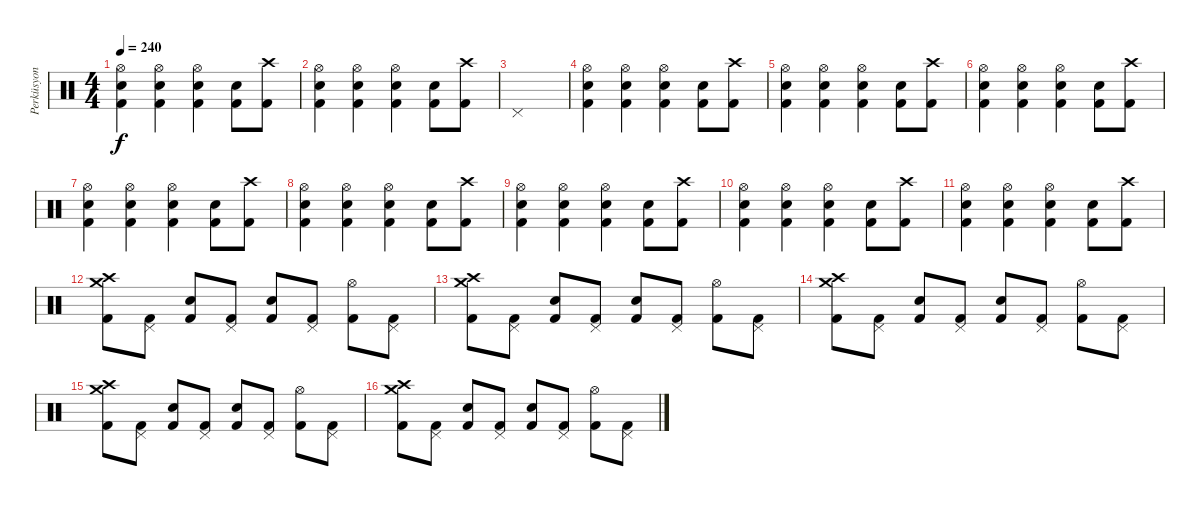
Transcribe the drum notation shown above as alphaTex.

\track ("Perküsyon" "Perküsyon") {instrument percussion}
\staff {score}
\articulation defaults
\ts (4 4)
\tempo 240
\clef neutral
\ks c
("Hi-Hat (open)" "Kick (hit) 2" "Electric Snare (hit)").4{dy f} ("Hi-Hat (open)" "Kick (hit) 2" "Electric Snare (hit)").4 ("Hi-Hat (open)" "Kick (hit) 2" "Electric Snare (hit)").4 ("Electric Snare (hit)" "Kick (hit) 2").8 ("Crash high (hit)" "Kick (hit) 2").8 |
("Hi-Hat (open)" "Kick (hit) 2" "Electric Snare (hit)").4 ("Hi-Hat (open)" "Kick (hit) 2" "Electric Snare (hit)").4 ("Hi-Hat (open)" "Kick (hit) 2" "Electric Snare (hit)").4 ("Electric Snare (hit)" "Kick (hit) 2").8 ("Crash high (hit)" "Kick (hit) 2").8 |
"Pedal Hi-Hat (hit)".1{volume 11} |
("Hi-Hat (open)" "Kick (hit) 2" "Electric Snare (hit)").4 ("Hi-Hat (open)" "Kick (hit) 2" "Electric Snare (hit)").4 ("Hi-Hat (open)" "Kick (hit) 2" "Electric Snare (hit)").4 ("Electric Snare (hit)" "Kick (hit) 2").8 ("Crash high (hit)" "Kick (hit) 2").8 |
("Hi-Hat (open)" "Kick (hit) 2" "Electric Snare (hit)").4 ("Hi-Hat (open)" "Kick (hit) 2" "Electric Snare (hit)").4 ("Hi-Hat (open)" "Kick (hit) 2" "Electric Snare (hit)").4 ("Electric Snare (hit)" "Kick (hit) 2").8 ("Crash high (hit)" "Kick (hit) 2").8 |
("Hi-Hat (open)" "Kick (hit) 2" "Electric Snare (hit)").4 ("Hi-Hat (open)" "Kick (hit) 2" "Electric Snare (hit)").4 ("Hi-Hat (open)" "Kick (hit) 2" "Electric Snare (hit)").4 ("Electric Snare (hit)" "Kick (hit) 2").8 ("Crash high (hit)" "Kick (hit) 2").8 |
("Hi-Hat (open)" "Kick (hit) 2" "Electric Snare (hit)").4 ("Hi-Hat (open)" "Kick (hit) 2" "Electric Snare (hit)").4 ("Hi-Hat (open)" "Kick (hit) 2" "Electric Snare (hit)").4 ("Electric Snare (hit)" "Kick (hit) 2").8 ("Crash high (hit)" "Kick (hit) 2").8 |
("Hi-Hat (open)" "Kick (hit) 2" "Electric Snare (hit)").4 ("Hi-Hat (open)" "Kick (hit) 2" "Electric Snare (hit)").4 ("Hi-Hat (open)" "Kick (hit) 2" "Electric Snare (hit)").4 ("Electric Snare (hit)" "Kick (hit) 2").8 ("Crash high (hit)" "Kick (hit) 2").8 |
("Hi-Hat (open)" "Kick (hit) 2" "Electric Snare (hit)").4 ("Hi-Hat (open)" "Kick (hit) 2" "Electric Snare (hit)").4 ("Hi-Hat (open)" "Kick (hit) 2" "Electric Snare (hit)").4 ("Electric Snare (hit)" "Kick (hit) 2").8 ("Crash high (hit)" "Kick (hit) 2").8 |
("Hi-Hat (open)" "Kick (hit) 2" "Electric Snare (hit)").4 ("Hi-Hat (open)" "Kick (hit) 2" "Electric Snare (hit)").4 ("Hi-Hat (open)" "Kick (hit) 2" "Electric Snare (hit)").4 ("Electric Snare (hit)" "Kick (hit) 2").8 ("Crash high (hit)" "Kick (hit) 2").8 |
("Hi-Hat (open)" "Kick (hit) 2" "Electric Snare (hit)").4 ("Hi-Hat (open)" "Kick (hit) 2" "Electric Snare (hit)").4 ("Hi-Hat (open)" "Kick (hit) 2" "Electric Snare (hit)").4 ("Electric Snare (hit)" "Kick (hit) 2").8 ("Crash high (hit)" "Kick (hit) 2").8 |
("Crash medium (hit)" "Kick (hit) 2" "Crash high (hit)").8{volume 16} ("Kick (hit) 2" "Pedal Hi-Hat (hit)").8 ("Kick (hit) 2" "Snare (hit) 2").8 ("Kick (hit) 2" "Pedal Hi-Hat (hit)").8 ("Kick (hit) 2" "Electric Snare (hit)").8 ("Kick (hit) 2" "Pedal Hi-Hat (hit)").8 ("Kick (hit) 2" "Hi-Hat (open)").8 ("Kick (hit) 2" "Pedal Hi-Hat (hit)").8 |
("Crash medium (hit)" "Kick (hit) 2" "Crash high (hit)").8 ("Kick (hit) 2" "Pedal Hi-Hat (hit)").8 ("Kick (hit) 2" "Snare (hit) 2").8 ("Kick (hit) 2" "Pedal Hi-Hat (hit)").8 ("Kick (hit) 2" "Electric Snare (hit)").8 ("Kick (hit) 2" "Pedal Hi-Hat (hit)").8 ("Kick (hit) 2" "Hi-Hat (open)").8 ("Kick (hit) 2" "Pedal Hi-Hat (hit)").8 |
("Crash medium (hit)" "Kick (hit) 2" "Crash high (hit)").8 ("Kick (hit) 2" "Pedal Hi-Hat (hit)").8 ("Kick (hit) 2" "Snare (hit) 2").8 ("Kick (hit) 2" "Pedal Hi-Hat (hit)").8 ("Kick (hit) 2" "Electric Snare (hit)").8 ("Kick (hit) 2" "Pedal Hi-Hat (hit)").8 ("Kick (hit) 2" "Hi-Hat (open)").8 ("Kick (hit) 2" "Pedal Hi-Hat (hit)").8 |
("Crash medium (hit)" "Kick (hit) 2" "Crash high (hit)").8 ("Kick (hit) 2" "Pedal Hi-Hat (hit)").8 ("Kick (hit) 2" "Snare (hit) 2").8 ("Kick (hit) 2" "Pedal Hi-Hat (hit)").8 ("Kick (hit) 2" "Electric Snare (hit)").8 ("Kick (hit) 2" "Pedal Hi-Hat (hit)").8 ("Kick (hit) 2" "Hi-Hat (open)").8 ("Kick (hit) 2" "Pedal Hi-Hat (hit)").8 |
("Crash medium (hit)" "Kick (hit) 2" "Crash high (hit)").8 ("Kick (hit) 2" "Pedal Hi-Hat (hit)").8 ("Kick (hit) 2" "Snare (hit) 2").8 ("Kick (hit) 2" "Pedal Hi-Hat (hit)").8 ("Kick (hit) 2" "Electric Snare (hit)").8 ("Kick (hit) 2" "Pedal Hi-Hat (hit)").8 ("Kick (hit) 2" "Hi-Hat (open)").8 ("Kick (hit) 2" "Pedal Hi-Hat (hit)").8
